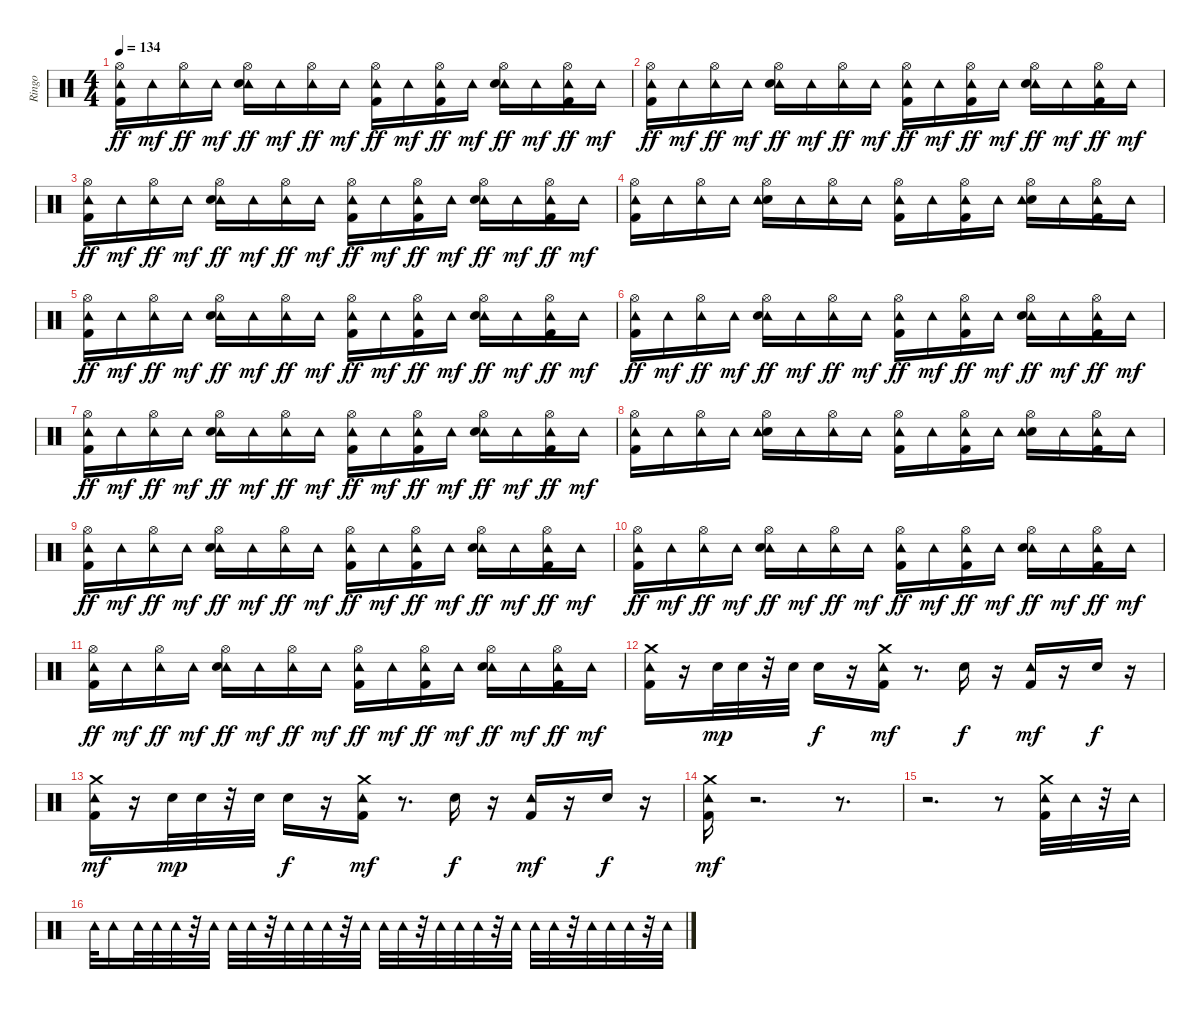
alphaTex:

\track ("Ringo" "Ringo") {instrument percussion}
\staff {score}
\articulation defaults
\ts (4 4)
\tempo 134
\clef neutral
\ks c
("Tambourine (hit)" "Kick (hit) 2" "Hi-Hat (open)").16{dy ff} "Tambourine (hit)".16{dy mf} ("Tambourine (hit)" "Hi-Hat (open)").16{dy ff} "Tambourine (hit)".16{dy mf} ("Tambourine (hit)" "Snare (hit) 2" "Hi-Hat (open)").16{dy ff} "Tambourine (hit)".16{dy mf} ("Tambourine (hit)" "Hi-Hat (open)").16{dy ff} "Tambourine (hit)".16{dy mf} ("Tambourine (hit)" "Kick (hit) 2" "Hi-Hat (open)").16{dy ff} "Tambourine (hit)".16{dy mf} ("Tambourine (hit)" "Kick (hit) 2" "Hi-Hat (open)").16{dy ff} "Tambourine (hit)".16{dy mf} ("Tambourine (hit)" "Snare (hit) 2" "Hi-Hat (open)").16{dy ff} "Tambourine (hit)".16{dy mf} ("Tambourine (hit)" "Kick (hit) 2" "Hi-Hat (open)").16{dy ff} "Tambourine (hit)".16{dy mf} |
("Tambourine (hit)" "Kick (hit) 2" "Hi-Hat (open)").16{dy ff} "Tambourine (hit)".16{dy mf} ("Tambourine (hit)" "Hi-Hat (open)").16{dy ff} "Tambourine (hit)".16{dy mf} ("Tambourine (hit)" "Snare (hit) 2" "Hi-Hat (open)").16{dy ff} "Tambourine (hit)".16{dy mf} ("Tambourine (hit)" "Hi-Hat (open)").16{dy ff} "Tambourine (hit)".16{dy mf} ("Tambourine (hit)" "Kick (hit) 2" "Hi-Hat (open)").16{dy ff} "Tambourine (hit)".16{dy mf} ("Tambourine (hit)" "Kick (hit) 2" "Hi-Hat (open)").16{dy ff} "Tambourine (hit)".16{dy mf} ("Tambourine (hit)" "Snare (hit) 2" "Hi-Hat (open)").16{dy ff} "Tambourine (hit)".16{dy mf} ("Tambourine (hit)" "Kick (hit) 2" "Hi-Hat (open)").16{dy ff} "Tambourine (hit)".16{dy mf} |
("Tambourine (hit)" "Kick (hit) 2" "Hi-Hat (open)").16{dy ff} "Tambourine (hit)".16{dy mf} ("Tambourine (hit)" "Hi-Hat (open)").16{dy ff} "Tambourine (hit)".16{dy mf} ("Tambourine (hit)" "Snare (hit) 2" "Hi-Hat (open)").16{dy ff} "Tambourine (hit)".16{dy mf} ("Tambourine (hit)" "Hi-Hat (open)").16{dy ff} "Tambourine (hit)".16{dy mf} ("Tambourine (hit)" "Kick (hit) 2" "Hi-Hat (open)").16{dy ff} "Tambourine (hit)".16{dy mf} ("Tambourine (hit)" "Kick (hit) 2" "Hi-Hat (open)").16{dy ff} "Tambourine (hit)".16{dy mf} ("Tambourine (hit)" "Snare (hit) 2" "Hi-Hat (open)").16{dy ff} "Tambourine (hit)".16{dy mf} ("Tambourine (hit)" "Kick (hit) 2" "Hi-Hat (open)").16{dy ff} "Tambourine (hit)".16{dy mf} |
("Hi-Hat (open)" "Kick (hit) 2" "Tambourine (hit)").16 "Tambourine (hit)".16 ("Hi-Hat (open)" "Tambourine (hit)").16 "Tambourine (hit)".16 ("Hi-Hat (open)" "Snare (hit) 2" "Tambourine (hit)").16 "Tambourine (hit)".16 ("Hi-Hat (open)" "Tambourine (hit)").16 "Tambourine (hit)".16 ("Hi-Hat (open)" "Kick (hit) 2" "Tambourine (hit)").16 "Tambourine (hit)".16 ("Hi-Hat (open)" "Kick (hit) 2" "Tambourine (hit)").16 "Tambourine (hit)".16 ("Hi-Hat (open)" "Snare (hit) 2" "Tambourine (hit)").16 "Tambourine (hit)".16 ("Hi-Hat (open)" "Kick (hit) 2" "Tambourine (hit)").16 "Tambourine (hit)".16 |
("Tambourine (hit)" "Kick (hit) 2" "Hi-Hat (open)").16{dy ff} "Tambourine (hit)".16{dy mf} ("Tambourine (hit)" "Hi-Hat (open)").16{dy ff} "Tambourine (hit)".16{dy mf} ("Tambourine (hit)" "Snare (hit) 2" "Hi-Hat (open)").16{dy ff} "Tambourine (hit)".16{dy mf} ("Tambourine (hit)" "Hi-Hat (open)").16{dy ff} "Tambourine (hit)".16{dy mf} ("Tambourine (hit)" "Kick (hit) 2" "Hi-Hat (open)").16{dy ff} "Tambourine (hit)".16{dy mf} ("Tambourine (hit)" "Kick (hit) 2" "Hi-Hat (open)").16{dy ff} "Tambourine (hit)".16{dy mf} ("Tambourine (hit)" "Snare (hit) 2" "Hi-Hat (open)").16{dy ff} "Tambourine (hit)".16{dy mf} ("Tambourine (hit)" "Kick (hit) 2" "Hi-Hat (open)").16{dy ff} "Tambourine (hit)".16{dy mf} |
("Tambourine (hit)" "Kick (hit) 2" "Hi-Hat (open)").16{dy ff} "Tambourine (hit)".16{dy mf} ("Tambourine (hit)" "Hi-Hat (open)").16{dy ff} "Tambourine (hit)".16{dy mf} ("Tambourine (hit)" "Snare (hit) 2" "Hi-Hat (open)").16{dy ff} "Tambourine (hit)".16{dy mf} ("Tambourine (hit)" "Hi-Hat (open)").16{dy ff} "Tambourine (hit)".16{dy mf} ("Tambourine (hit)" "Kick (hit) 2" "Hi-Hat (open)").16{dy ff} "Tambourine (hit)".16{dy mf} ("Tambourine (hit)" "Kick (hit) 2" "Hi-Hat (open)").16{dy ff} "Tambourine (hit)".16{dy mf} ("Tambourine (hit)" "Snare (hit) 2" "Hi-Hat (open)").16{dy ff} "Tambourine (hit)".16{dy mf} ("Tambourine (hit)" "Kick (hit) 2" "Hi-Hat (open)").16{dy ff} "Tambourine (hit)".16{dy mf} |
("Tambourine (hit)" "Kick (hit) 2" "Hi-Hat (open)").16{dy ff} "Tambourine (hit)".16{dy mf} ("Tambourine (hit)" "Hi-Hat (open)").16{dy ff} "Tambourine (hit)".16{dy mf} ("Tambourine (hit)" "Snare (hit) 2" "Hi-Hat (open)").16{dy ff} "Tambourine (hit)".16{dy mf} ("Tambourine (hit)" "Hi-Hat (open)").16{dy ff} "Tambourine (hit)".16{dy mf} ("Tambourine (hit)" "Kick (hit) 2" "Hi-Hat (open)").16{dy ff} "Tambourine (hit)".16{dy mf} ("Tambourine (hit)" "Kick (hit) 2" "Hi-Hat (open)").16{dy ff} "Tambourine (hit)".16{dy mf} ("Tambourine (hit)" "Snare (hit) 2" "Hi-Hat (open)").16{dy ff} "Tambourine (hit)".16{dy mf} ("Tambourine (hit)" "Kick (hit) 2" "Hi-Hat (open)").16{dy ff} "Tambourine (hit)".16{dy mf} |
("Hi-Hat (open)" "Kick (hit) 2" "Tambourine (hit)").16 "Tambourine (hit)".16 ("Hi-Hat (open)" "Tambourine (hit)").16 "Tambourine (hit)".16 ("Hi-Hat (open)" "Snare (hit) 2" "Tambourine (hit)").16 "Tambourine (hit)".16 ("Hi-Hat (open)" "Tambourine (hit)").16 "Tambourine (hit)".16 ("Hi-Hat (open)" "Kick (hit) 2" "Tambourine (hit)").16 "Tambourine (hit)".16 ("Hi-Hat (open)" "Kick (hit) 2" "Tambourine (hit)").16 "Tambourine (hit)".16 ("Hi-Hat (open)" "Snare (hit) 2" "Tambourine (hit)").16 "Tambourine (hit)".16 ("Hi-Hat (open)" "Kick (hit) 2" "Tambourine (hit)").16 "Tambourine (hit)".16 |
("Tambourine (hit)" "Kick (hit) 2" "Hi-Hat (open)").16{dy ff} "Tambourine (hit)".16{dy mf} ("Tambourine (hit)" "Hi-Hat (open)").16{dy ff} "Tambourine (hit)".16{dy mf} ("Tambourine (hit)" "Snare (hit) 2" "Hi-Hat (open)").16{dy ff} "Tambourine (hit)".16{dy mf} ("Tambourine (hit)" "Hi-Hat (open)").16{dy ff} "Tambourine (hit)".16{dy mf} ("Tambourine (hit)" "Kick (hit) 2" "Hi-Hat (open)").16{dy ff} "Tambourine (hit)".16{dy mf} ("Tambourine (hit)" "Kick (hit) 2" "Hi-Hat (open)").16{dy ff} "Tambourine (hit)".16{dy mf} ("Tambourine (hit)" "Snare (hit) 2" "Hi-Hat (open)").16{dy ff} "Tambourine (hit)".16{dy mf} ("Tambourine (hit)" "Kick (hit) 2" "Hi-Hat (open)").16{dy ff} "Tambourine (hit)".16{dy mf} |
("Tambourine (hit)" "Kick (hit) 2" "Hi-Hat (open)").16{dy ff} "Tambourine (hit)".16{dy mf} ("Tambourine (hit)" "Hi-Hat (open)").16{dy ff} "Tambourine (hit)".16{dy mf} ("Tambourine (hit)" "Snare (hit) 2" "Hi-Hat (open)").16{dy ff} "Tambourine (hit)".16{dy mf} ("Tambourine (hit)" "Hi-Hat (open)").16{dy ff} "Tambourine (hit)".16{dy mf} ("Tambourine (hit)" "Kick (hit) 2" "Hi-Hat (open)").16{dy ff} "Tambourine (hit)".16{dy mf} ("Tambourine (hit)" "Kick (hit) 2" "Hi-Hat (open)").16{dy ff} "Tambourine (hit)".16{dy mf} ("Tambourine (hit)" "Snare (hit) 2" "Hi-Hat (open)").16{dy ff} "Tambourine (hit)".16{dy mf} ("Tambourine (hit)" "Kick (hit) 2" "Hi-Hat (open)").16{dy ff} "Tambourine (hit)".16{dy mf} |
("Tambourine (hit)" "Kick (hit) 2" "Hi-Hat (open)").16{dy ff} "Tambourine (hit)".16{dy mf} ("Tambourine (hit)" "Hi-Hat (open)").16{dy ff} "Tambourine (hit)".16{dy mf} ("Tambourine (hit)" "Snare (hit) 2" "Hi-Hat (open)").16{dy ff} "Tambourine (hit)".16{dy mf} ("Tambourine (hit)" "Hi-Hat (open)").16{dy ff} "Tambourine (hit)".16{dy mf} ("Tambourine (hit)" "Kick (hit) 2" "Hi-Hat (open)").16{dy ff} "Tambourine (hit)".16{dy mf} ("Tambourine (hit)" "Kick (hit) 2" "Hi-Hat (open)").16{dy ff} "Tambourine (hit)".16{dy mf} ("Tambourine (hit)" "Snare (hit) 2" "Hi-Hat (open)").16{dy ff} "Tambourine (hit)".16{dy mf} ("Tambourine (hit)" "Kick (hit) 2" "Hi-Hat (open)").16{dy ff} "Tambourine (hit)".16{dy mf} |
("Kick (hit) 2" "Crash medium (hit)" "Tambourine (hit)").16 r.16 "Snare (hit) 2".32{dy mp} "Snare (hit) 2".32 r.32 "Snare (hit) 2".32 "Snare (hit) 2".16{dy f} r.16 ("Kick (hit) 2" "Crash medium (hit)" "Tambourine (hit)").16{dy mf} r.8{d} "Snare (hit) 2".16{dy f} r.16 ("Kick (hit) 2" "Tambourine (hit)").16{dy mf} r.16 "Snare (hit) 2".16{dy f} r.16 |
("Crash medium (hit)" "Kick (hit) 2" "Tambourine (hit)").16{dy mf} r.16 "Snare (hit) 2".32{dy mp} "Snare (hit) 2".32 r.32 "Snare (hit) 2".32 "Snare (hit) 2".16{dy f} r.16 ("Crash medium (hit)" "Kick (hit) 2" "Tambourine (hit)").16{dy mf} r.8{d} "Snare (hit) 2".16{dy f} r.16 ("Kick (hit) 2" "Tambourine (hit)").16{dy mf} r.16 "Snare (hit) 2".16{dy f} r.16 |
("Kick (hit) 2" "Crash medium (hit)" "Tambourine (hit)").16{dy mf} r.2{d} r.8{d} |
r.2{d} r.8 ("Tambourine (hit)" "Kick (hit) 2" "Crash medium (hit)").32 "Tambourine (hit)".32 r.32 "Tambourine (hit)".32 |
"Tambourine (hit)".32 "Tambourine (hit)".16 "Tambourine (hit)".32 "Tambourine (hit)".32 "Tambourine (hit)".32 r.32 "Tambourine (hit)".32 "Tambourine (hit)".32 "Tambourine (hit)".32 r.32 "Tambourine (hit)".32 "Tambourine (hit)".32 "Tambourine (hit)".32 r.32 "Tambourine (hit)".32 "Tambourine (hit)".32 "Tambourine (hit)".32 r.32 "Tambourine (hit)".32 "Tambourine (hit)".32 "Tambourine (hit)".32 r.32 "Tambourine (hit)".32 "Tambourine (hit)".32 "Tambourine (hit)".32 r.32 "Tambourine (hit)".32 "Tambourine (hit)".32 "Tambourine (hit)".32 r.32 "Tambourine (hit)".32
